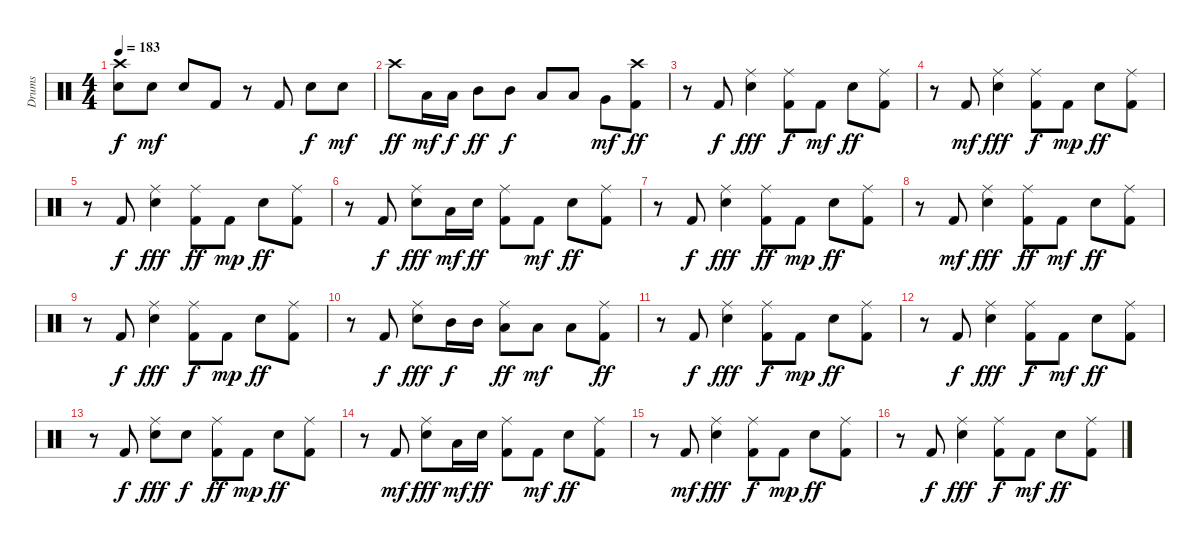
\track ("Drums" "Drums") {instrument percussion}
\staff {score}
\articulation defaults
\ts (4 4)
\tempo 183
\clef neutral
\ks c
("Snare (hit) 2" "Crash high (hit)").8{dy f} "Snare (hit) 2".8{dy mf} "Snare (hit) 2".8 "Kick (hit) 2".8 r.8 "Kick (hit) 2".8 "Snare (hit) 2".8{dy f} "Snare (hit) 2".8{dy mf} |
"Crash high (hit)".8{dy ff} "Low Floor Tom (hit)".16{dy mf} "Low Floor Tom (hit)".16{dy f} "Mid Tom (hit)".8{dy ff} "Mid Tom (hit)".8{dy f} "Low Tom (hit)".8 "Low Tom (hit)".8 "Very Low Tom (hit)".8{dy mf} ("Kick (hit) 2" "Crash high (hit)").8{dy ff} |
r.8 "Kick (hit) 2".8{dy f} ("Snare (hit) 2" "Ride (middle)").4{dy fff} ("Kick (hit) 2" "Ride (middle)").8{dy f} "Kick (hit) 2".8{dy mf} "Snare (hit) 2".8{dy ff} ("Kick (hit) 2" "Ride (middle)").8 |
r.8 "Kick (hit) 2".8{dy mf} ("Snare (hit) 2" "Ride (middle)").4{dy fff} ("Kick (hit) 2" "Ride (middle)").8{dy f} "Kick (hit) 2".8{dy mp} "Snare (hit) 2".8{dy ff} ("Kick (hit) 2" "Ride (middle)").8 |
r.8 "Kick (hit) 2".8{dy f} ("Snare (hit) 2" "Ride (middle)").4{dy fff} ("Kick (hit) 2" "Ride (middle)").8{dy ff} "Kick (hit) 2".8{dy mp} "Snare (hit) 2".8{dy ff} ("Kick (hit) 2" "Ride (middle)").8 |
r.8 "Kick (hit) 2".8{dy f} ("Snare (hit) 2" "Ride (middle)").8{dy fff} "Low Floor Tom (hit)".16{dy mf} "Snare (hit) 2".16{dy ff} ("Kick (hit) 2" "Ride (middle)").8 "Kick (hit) 2".8{dy mf} "Snare (hit) 2".8{dy ff} ("Kick (hit) 2" "Ride (middle)").8 |
r.8 "Kick (hit) 2".8{dy f} ("Snare (hit) 2" "Ride (middle)").4{dy fff} ("Kick (hit) 2" "Ride (middle)").8{dy ff} "Kick (hit) 2".8{dy mp} "Snare (hit) 2".8{dy ff} ("Kick (hit) 2" "Ride (middle)").8 |
r.8 "Kick (hit) 2".8{dy mf} ("Snare (hit) 2" "Ride (middle)").4{dy fff} ("Kick (hit) 2" "Ride (middle)").8{dy ff} "Kick (hit) 2".8{dy mf} "Snare (hit) 2".8{dy ff} ("Kick (hit) 2" "Ride (middle)").8 |
r.8 "Kick (hit) 2".8{dy f} ("Snare (hit) 2" "Ride (middle)").4{dy fff} ("Kick (hit) 2" "Ride (middle)").8{dy f} "Kick (hit) 2".8{dy mp} "Snare (hit) 2".8{dy ff} ("Kick (hit) 2" "Ride (middle)").8 |
r.8 "Kick (hit) 2".8{dy f} ("Snare (hit) 2" "Ride (middle)").8{dy fff} "Mid Tom (hit)".16{dy f} "Mid Tom (hit)".16 ("Low Tom (hit)" "Ride (middle)").8{dy ff} "Low Tom (hit)".8{dy mf} "Low Floor Tom (hit)".8 ("Kick (hit) 2" "Ride (middle)").8{dy ff} |
r.8 "Kick (hit) 2".8{dy f} ("Snare (hit) 2" "Ride (middle)").4{dy fff} ("Kick (hit) 2" "Ride (middle)").8{dy f} "Kick (hit) 2".8{dy mp} "Snare (hit) 2".8{dy ff} ("Kick (hit) 2" "Ride (middle)").8 |
r.8 "Kick (hit) 2".8{dy f} ("Snare (hit) 2" "Ride (middle)").4{dy fff} ("Kick (hit) 2" "Ride (middle)").8{dy f} "Kick (hit) 2".8{dy mf} "Snare (hit) 2".8{dy ff} ("Kick (hit) 2" "Ride (middle)").8 |
r.8 "Kick (hit) 2".8{dy f} ("Snare (hit) 2" "Ride (middle)").8{dy fff} "Snare (hit) 2".8{dy f} ("Kick (hit) 2" "Ride (middle)").8{dy ff} "Kick (hit) 2".8{dy mp} "Snare (hit) 2".8{dy ff} ("Kick (hit) 2" "Ride (middle)").8 |
r.8 "Kick (hit) 2".8{dy mf} ("Snare (hit) 2" "Ride (middle)").8{dy fff} "Low Floor Tom (hit)".16{dy mf} "Snare (hit) 2".16{dy ff} ("Kick (hit) 2" "Ride (middle)").8 "Kick (hit) 2".8{dy mf} "Snare (hit) 2".8{dy ff} ("Kick (hit) 2" "Ride (middle)").8 |
r.8 "Kick (hit) 2".8{dy mf} ("Snare (hit) 2" "Ride (middle)").4{dy fff} ("Kick (hit) 2" "Ride (middle)").8{dy f} "Kick (hit) 2".8{dy mp} "Snare (hit) 2".8{dy ff} ("Kick (hit) 2" "Ride (middle)").8 |
r.8 "Kick (hit) 2".8{dy f} ("Snare (hit) 2" "Ride (middle)").4{dy fff} ("Kick (hit) 2" "Ride (middle)").8{dy f} "Kick (hit) 2".8{dy mf} "Snare (hit) 2".8{dy ff} ("Kick (hit) 2" "Ride (middle)").8
